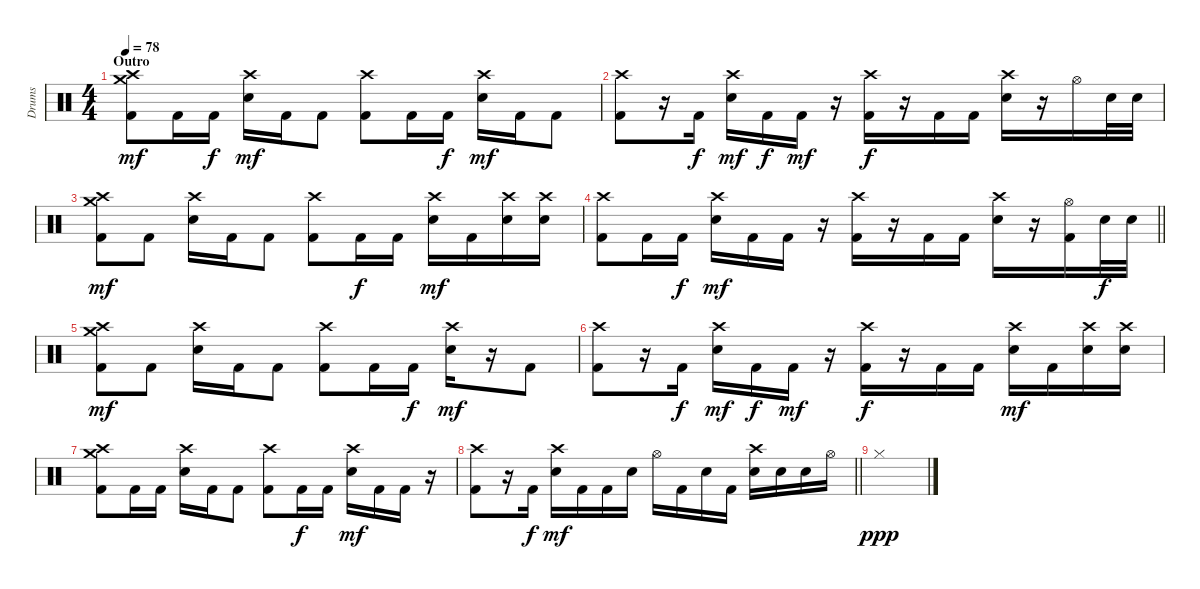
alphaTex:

\track ("Drums" "Drums") {instrument percussion}
\staff {score}
\articulation defaults
\ts (4 4)
\section ("" "Outro")
\tempo 78
\clef neutral
\ks c
("Crash medium (hit)" "Crash high (hit)" "Kick (hit) 2").8{dy mf} "Kick (hit) 2".16 "Kick (hit) 2".16{dy f} ("Crash high (hit)" "Electric Snare (hit)").16{dy mf} "Kick (hit) 2".16 "Kick (hit) 2".8 ("Crash high (hit)" "Kick (hit) 2").8 "Kick (hit) 2".16 "Kick (hit) 2".16{dy f} ("Crash high (hit)" "Electric Snare (hit)").16{dy mf} "Kick (hit) 2".16 "Kick (hit) 2".8 |
("Crash high (hit)" "Kick (hit) 2").8 r.16 "Kick (hit) 2".16{dy f} ("Crash high (hit)" "Electric Snare (hit)").16{dy mf} "Kick (hit) 2".16{dy f} "Kick (hit) 2".16{dy mf} r.16 ("Crash high (hit)" "Kick (hit) 2").16{dy f} r.16 "Kick (hit) 2".16 "Kick (hit) 2".16 ("Crash high (hit)" "Electric Snare (hit)").16 r.16 "Hi-Hat (open)".16 "Electric Snare (hit)".32 "Electric Snare (hit)".32 |
("Crash high (hit)" "Crash medium (hit)" "Kick (hit) 2").8{dy mf} "Kick (hit) 2".8 ("Crash high (hit)" "Electric Snare (hit)").16 "Kick (hit) 2".16 "Kick (hit) 2".8 ("Crash high (hit)" "Kick (hit) 2").8 "Kick (hit) 2".16{dy f} "Kick (hit) 2".16 ("Crash high (hit)" "Electric Snare (hit)").16{dy mf} "Kick (hit) 2".16 ("Crash high (hit)" "Electric Snare (hit)").16 ("Crash high (hit)" "Electric Snare (hit)").16 |
\barLineRight lightlight
("Crash high (hit)" "Kick (hit) 2").8 "Kick (hit) 2".16 "Kick (hit) 2".16{dy f} ("Crash high (hit)" "Electric Snare (hit)").16{dy mf} "Kick (hit) 2".16 "Kick (hit) 2".16 r.16 ("Crash high (hit)" "Kick (hit) 2").16 r.16 "Kick (hit) 2".16 "Kick (hit) 2".16 ("Crash high (hit)" "Electric Snare (hit)").16 r.16 ("Hi-Hat (open)" "Kick (hit) 2").16 "Electric Snare (hit)".32{dy f} "Electric Snare (hit)".32 |
("Crash medium (hit)" "Crash high (hit)" "Kick (hit) 2").8{dy mf} "Kick (hit) 2".8 ("Crash high (hit)" "Electric Snare (hit)").16 "Kick (hit) 2".16 "Kick (hit) 2".8 ("Crash high (hit)" "Kick (hit) 2").8 "Kick (hit) 2".16 "Kick (hit) 2".16{dy f} ("Crash high (hit)" "Electric Snare (hit)").16{dy mf} r.16 "Kick (hit) 2".8 |
("Crash high (hit)" "Kick (hit) 2").8 r.16 "Kick (hit) 2".16{dy f} ("Crash high (hit)" "Electric Snare (hit)").16{dy mf} "Kick (hit) 2".16{dy f} "Kick (hit) 2".16{dy mf} r.16 ("Crash high (hit)" "Kick (hit) 2").16{dy f} r.16 "Kick (hit) 2".16 "Kick (hit) 2".16 ("Crash high (hit)" "Electric Snare (hit)").16{dy mf} "Kick (hit) 2".16 ("Crash high (hit)" "Electric Snare (hit)").16 ("Crash high (hit)" "Electric Snare (hit)").16 |
("Crash high (hit)" "Crash medium (hit)" "Kick (hit) 2").8 "Kick (hit) 2".16 "Kick (hit) 2".16 ("Crash high (hit)" "Electric Snare (hit)").16 "Kick (hit) 2".16 "Kick (hit) 2".8 ("Crash high (hit)" "Kick (hit) 2").8 "Kick (hit) 2".16{dy f} "Kick (hit) 2".16 ("Crash high (hit)" "Electric Snare (hit)").16{dy mf} "Kick (hit) 2".16 "Kick (hit) 2".16 r.16 |
\barLineRight lightlight
("Crash high (hit)" "Kick (hit) 2").8 r.16 "Kick (hit) 2".16{dy f} ("Crash high (hit)" "Electric Snare (hit)").16{dy mf} "Kick (hit) 2".16 "Kick (hit) 2".16 "Electric Snare (hit)".16 "Hi-Hat (open)".16 "Kick (hit) 2".16 "Electric Snare (hit)".16 "Kick (hit) 2".16 ("Crash high (hit)" "Electric Snare (hit)").16 "Electric Snare (hit)".16 "Electric Snare (hit)".16 "Hi-Hat (open)".16 |
"Hi-Hat (closed)".1{dy ppp}
